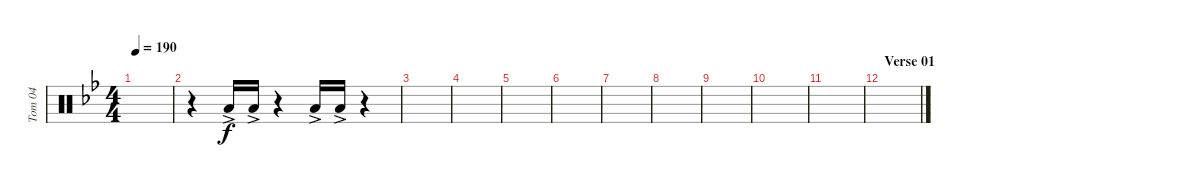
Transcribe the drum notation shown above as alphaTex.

\track ("Tom 04" "Tom 04") {instrument percussion}
\staff {score}
\articulation defaults
\ts (4 4)
\tempo 190
\clef neutral
\ks bb
|
r.4 "Low Tom (hit)"{ac}.16 "Low Tom (hit)"{ac}.16 r.4 "Low Tom (hit)"{ac}.16 "Low Tom (hit)"{ac}.16 r.4 |
|
|
|
|
|
|
|
|
|
\section ("" "Verse 01")
